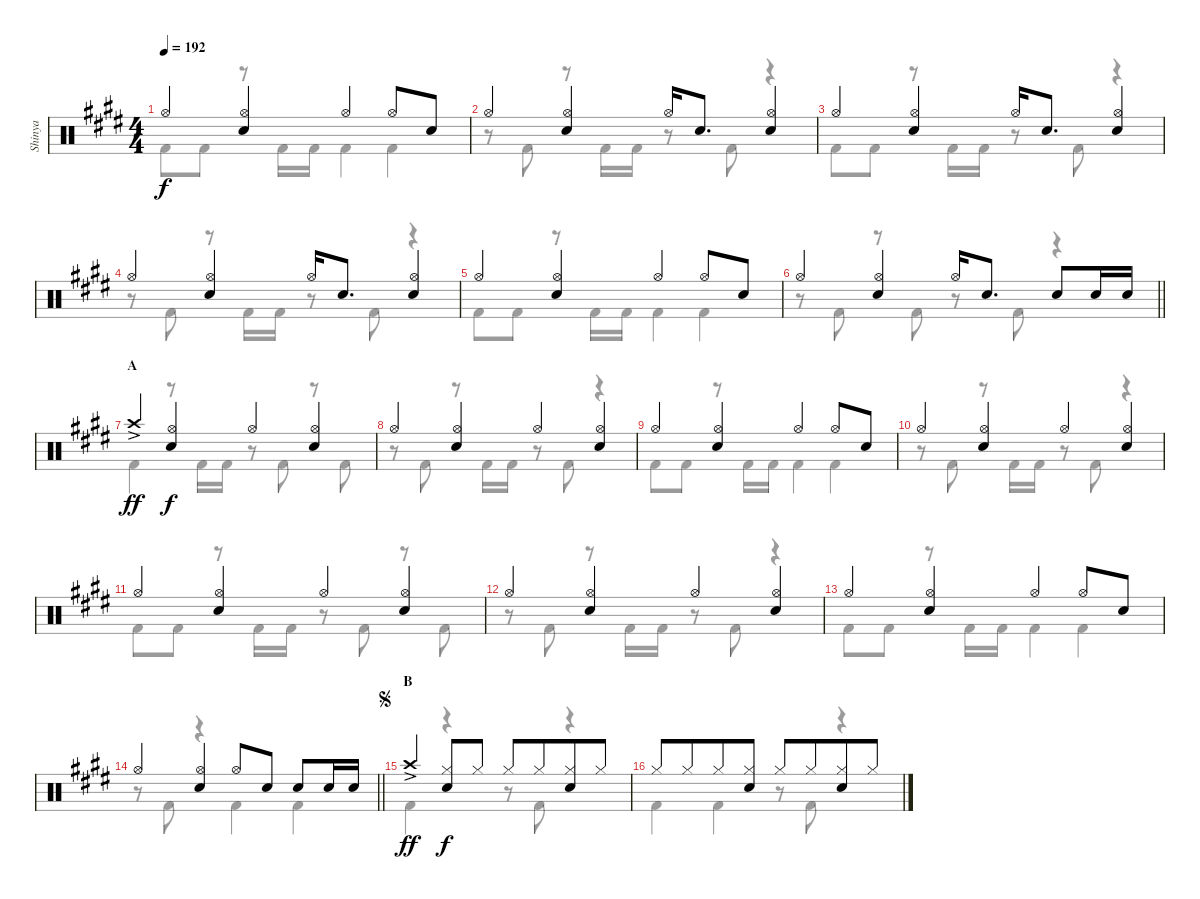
\track ("Shinya" "Shinya") {instrument percussion}
\staff {score}
\articulation defaults
\voice
\ts (4 4)
\tempo 192
\clef neutral
\ks c#minor "Hi-Hat (open)".4{dy f}
("Hi-Hat (open)" "Snare (hit) 2").4 "Hi-Hat (open)".4 "Hi-Hat (open)".8 "Snare (hit) 2".8 |
"Hi-Hat (open)".4 ("Hi-Hat (open)" "Snare (hit) 2").4 "Hi-Hat (open)".16 "Snare (hit) 2".8{d} ("Hi-Hat (open)" "Snare (hit) 2").4 |
"Hi-Hat (open)".4 ("Hi-Hat (open)" "Snare (hit) 2").4 "Hi-Hat (open)".16 "Snare (hit) 2".8{d} ("Hi-Hat (open)" "Snare (hit) 2").4 |
"Hi-Hat (open)".4 ("Hi-Hat (open)" "Snare (hit) 2").4 "Hi-Hat (open)".16 "Snare (hit) 2".8{d} ("Hi-Hat (open)" "Snare (hit) 2").4 |
"Hi-Hat (open)".4 ("Hi-Hat (open)" "Snare (hit) 2").4 "Hi-Hat (open)".4 "Hi-Hat (open)".8 "Snare (hit) 2".8 |
\barLineRight lightlight "Hi-Hat (open)".4
("Hi-Hat (open)" "Snare (hit) 2").4 "Hi-Hat (open)".16 "Snare (hit) 2".8{d} "Snare (hit) 2".8 "Snare (hit) 2".16 "Snare (hit) 2".16 |
\section ("" "A")
"Crash high (hit)"{ac}.4{dy ff} ("Hi-Hat (open)" "Snare (hit) 2").4{dy f} "Hi-Hat (open)".4 ("Hi-Hat (open)" "Snare (hit) 2").4 |
"Hi-Hat (open)".4 ("Hi-Hat (open)" "Snare (hit) 2").4 "Hi-Hat (open)".4 ("Hi-Hat (open)" "Snare (hit) 2").4 |
"Hi-Hat (open)".4 ("Hi-Hat (open)" "Snare (hit) 2").4 "Hi-Hat (open)".4 "Hi-Hat (open)".8 "Snare (hit) 2".8 |
"Hi-Hat (open)".4 ("Hi-Hat (open)" "Snare (hit) 2").4 "Hi-Hat (open)".4 ("Hi-Hat (open)" "Snare (hit) 2").4 |
"Hi-Hat (open)".4 ("Hi-Hat (open)" "Snare (hit) 2").4 "Hi-Hat (open)".4 ("Hi-Hat (open)" "Snare (hit) 2").4 |
"Hi-Hat (open)".4 ("Hi-Hat (open)" "Snare (hit) 2").4 "Hi-Hat (open)".4 ("Hi-Hat (open)" "Snare (hit) 2").4 |
"Hi-Hat (open)".4 ("Hi-Hat (open)" "Snare (hit) 2").4 "Hi-Hat (open)".4 "Hi-Hat (open)".8 "Snare (hit) 2".8 |
\barLineRight lightlight "Hi-Hat (open)".4
("Hi-Hat (open)" "Snare (hit) 2").4 "Hi-Hat (open)".8 "Snare (hit) 2".8 "Snare (hit) 2".8 "Snare (hit) 2".16 "Snare (hit) 2".16 |
\section ("" "B")
\jump segno "Crash high (hit)"{ac}.4{dy ff}
("Hi-Hat (closed)" "Snare (hit) 2").8{dy f} "Hi-Hat (closed)".8 "Hi-Hat (closed)".8 "Hi-Hat (closed)".8{beam merge} ("Hi-Hat (closed)" "Snare (hit) 2").8 "Hi-Hat (closed)".8 |
"Hi-Hat (closed)".8 "Hi-Hat (closed)".8{beam merge} "Hi-Hat (closed)".8 ("Hi-Hat (closed)" "Snare (hit) 2").8 "Hi-Hat (closed)".8 "Hi-Hat (closed)".8{beam merge} ("Hi-Hat (closed)" "Snare (hit) 2").8 "Hi-Hat (closed)".8
\voice
\clef neutral
\ottava regular
\simile none
\ks c#minor "Kick (hit) 2".8{dy f} "Kick (hit) 2".8
r.8 "Kick (hit) 2".16 "Kick (hit) 2".16 "Kick (hit) 2".4 "Kick (hit) 2".4 |
r.8 "Kick (hit) 2".8 r.8 "Kick (hit) 2".16 "Kick (hit) 2".16 r.8 "Kick (hit) 2".8 r.4 |
"Kick (hit) 2".8 "Kick (hit) 2".8 r.8 "Kick (hit) 2".16 "Kick (hit) 2".16 r.8 "Kick (hit) 2".8 r.4 |
r.8 "Kick (hit) 2".8 r.8 "Kick (hit) 2".16 "Kick (hit) 2".16 r.8 "Kick (hit) 2".8 r.4 |
"Kick (hit) 2".8 "Kick (hit) 2".8 r.8 "Kick (hit) 2".16 "Kick (hit) 2".16 "Kick (hit) 2".4 "Kick (hit) 2".4 |
\barLineRight lightlight
r.8 "Kick (hit) 2".8 r.8 "Kick (hit) 2".8 r.8 "Kick (hit) 2".8 r.4 |
"Kick (hit) 2".4 r.8 "Kick (hit) 2".16 "Kick (hit) 2".16 r.8 "Kick (hit) 2".8 r.8 "Kick (hit) 2".8 |
r.8 "Kick (hit) 2".8 r.8 "Kick (hit) 2".16 "Kick (hit) 2".16 r.8 "Kick (hit) 2".8 r.4 |
"Kick (hit) 2".8 "Kick (hit) 2".8 r.8 "Kick (hit) 2".16 "Kick (hit) 2".16 "Kick (hit) 2".4 "Kick (hit) 2".4 |
r.8 "Kick (hit) 2".8 r.8 "Kick (hit) 2".16 "Kick (hit) 2".16 r.8 "Kick (hit) 2".8 r.4 |
"Kick (hit) 2".8 "Kick (hit) 2".8 r.8 "Kick (hit) 2".16 "Kick (hit) 2".16 r.8 "Kick (hit) 2".8 r.8 "Kick (hit) 2".8 |
r.8 "Kick (hit) 2".8 r.8 "Kick (hit) 2".16 "Kick (hit) 2".16 r.8 "Kick (hit) 2".8 r.4 |
"Kick (hit) 2".8 "Kick (hit) 2".8 r.8 "Kick (hit) 2".16 "Kick (hit) 2".16 "Kick (hit) 2".4 "Kick (hit) 2".4 |
\barLineRight lightlight
r.8 "Kick (hit) 2".8 r.4 "Kick (hit) 2".4 "Kick (hit) 2".4 |
"Kick (hit) 2".4 r.4 r.8 "Kick (hit) 2".8 r.4 |
"Kick (hit) 2".4 "Kick (hit) 2".4 r.8 "Kick (hit) 2".8 r.4
